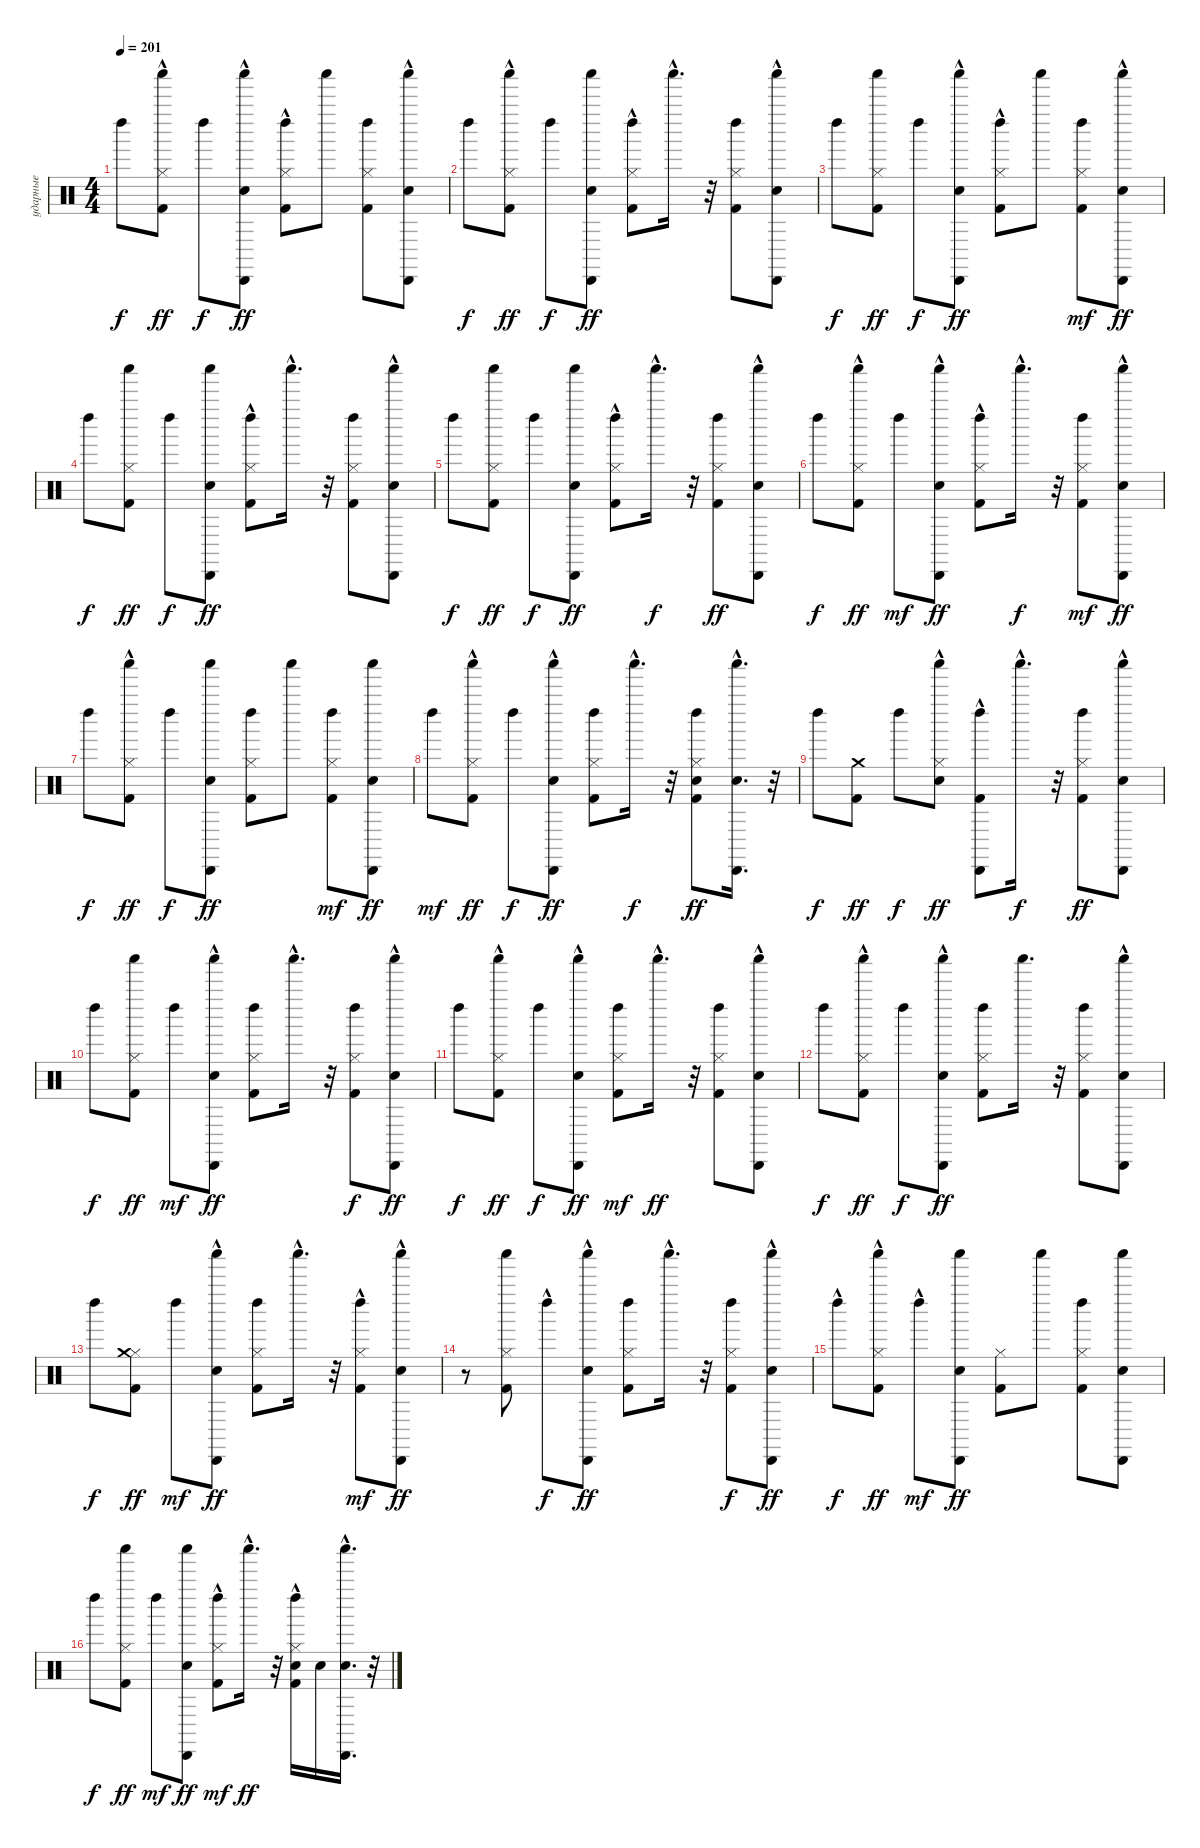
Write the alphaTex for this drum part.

\track ("ударные" "ударные") {instrument percussion}
\staff {score}
\articulation defaults
\ts (4 4)
\tempo 201
\clef neutral
\ks c "Left Maraca (hit)".8{dy f}
("Kick (hit) 2" "Hi-Hat (closed)" "Shaker (hit)"{hac}).8{dy ff} "Left Maraca (hit)".8{dy f} ("Electric Snare (hit)" "Cabasa (hit)" "Shaker (hit)"{hac}).8{dy ff} ("Kick (hit) 2" "Hi-Hat (closed)"{hac} "Left Maraca (hit)").8 "Shaker (hit)".8 ("Kick (hit) 2" "Hi-Hat (closed)" "Left Maraca (hit)").8 ("Electric Snare (hit)" "Cabasa (hit)" "Shaker (hit)"{hac}).8 |
"Left Maraca (hit)".8{dy f} ("Kick (hit) 2" "Hi-Hat (closed)" "Shaker (hit)"{hac}).8{dy ff} "Left Maraca (hit)".8{dy f} ("Electric Snare (hit)" "Cabasa (hit)" "Shaker (hit)").8{dy ff} ("Kick (hit) 2" "Hi-Hat (closed)"{hac} "Left Maraca (hit)").8 "Shaker (hit)"{hac}.16{d} r.32 ("Kick (hit) 2" "Hi-Hat (closed)" "Left Maraca (hit)").8 ("Electric Snare (hit)" "Cabasa (hit)" "Shaker (hit)"{hac}).8 |
"Left Maraca (hit)".8{dy f} ("Kick (hit) 2" "Hi-Hat (closed)" "Shaker (hit)").8{dy ff} "Left Maraca (hit)".8{dy f} ("Electric Snare (hit)" "Cabasa (hit)"{hac} "Shaker (hit)").8{dy ff} ("Kick (hit) 2" "Hi-Hat (closed)"{hac} "Left Maraca (hit)").8 "Shaker (hit)".8 ("Kick (hit) 2" "Hi-Hat (closed)" "Left Maraca (hit)").8{dy mf} ("Electric Snare (hit)" "Cabasa (hit)"{hac} "Shaker (hit)").8{dy ff} |
"Left Maraca (hit)".8{dy f} ("Kick (hit) 2" "Hi-Hat (closed)" "Shaker (hit)").8{dy ff} "Left Maraca (hit)".8{dy f} ("Electric Snare (hit)" "Cabasa (hit)" "Shaker (hit)").8{dy ff} ("Kick (hit) 2" "Hi-Hat (closed)"{hac} "Left Maraca (hit)").8 "Shaker (hit)"{hac}.16{d} r.32 ("Kick (hit) 2" "Hi-Hat (closed)" "Left Maraca (hit)").8 ("Electric Snare (hit)" "Cabasa (hit)" "Shaker (hit)"{hac}).8 |
"Left Maraca (hit)".8{dy f} ("Kick (hit) 2" "Hi-Hat (closed)" "Shaker (hit)").8{dy ff} "Left Maraca (hit)".8{dy f} ("Electric Snare (hit)" "Cabasa (hit)" "Shaker (hit)").8{dy ff} ("Kick (hit) 2" "Hi-Hat (closed)"{hac} "Left Maraca (hit)").8 "Shaker (hit)"{hac}.16{d dy f} r.32 ("Kick (hit) 2" "Hi-Hat (closed)" "Left Maraca (hit)").8{dy ff} ("Electric Snare (hit)" "Cabasa (hit)" "Shaker (hit)"{hac}).8 |
"Left Maraca (hit)".8{dy f} ("Kick (hit) 2" "Hi-Hat (closed)" "Shaker (hit)"{hac}).8{dy ff} "Left Maraca (hit)".8{dy mf} ("Electric Snare (hit)" "Cabasa (hit)" "Shaker (hit)"{hac}).8{dy ff} ("Kick (hit) 2" "Hi-Hat (closed)"{hac} "Left Maraca (hit)").8 "Shaker (hit)"{hac}.16{d dy f} r.32 ("Kick (hit) 2" "Hi-Hat (closed)" "Left Maraca (hit)").8{dy mf} ("Electric Snare (hit)" "Cabasa (hit)" "Shaker (hit)"{hac}).8{dy ff} |
"Left Maraca (hit)".8{dy f} ("Kick (hit) 2" "Hi-Hat (closed)" "Shaker (hit)"{hac}).8{dy ff} "Left Maraca (hit)".8{dy f} ("Electric Snare (hit)" "Cabasa (hit)" "Shaker (hit)").8{dy ff} ("Kick (hit) 2" "Hi-Hat (closed)" "Left Maraca (hit)").8 "Shaker (hit)".8 ("Kick (hit) 2" "Hi-Hat (closed)" "Left Maraca (hit)").8{dy mf} ("Electric Snare (hit)" "Cabasa (hit)" "Shaker (hit)").8{dy ff} |
"Left Maraca (hit)".8{dy mf} ("Kick (hit) 2" "Hi-Hat (closed)" "Shaker (hit)"{hac}).8{dy ff} "Left Maraca (hit)".8{dy f} ("Electric Snare (hit)" "Cabasa (hit)" "Shaker (hit)"{hac}).8{dy ff} ("Kick (hit) 2" "Hi-Hat (closed)" "Left Maraca (hit)").8 "Shaker (hit)"{hac}.16{d dy f} r.32 ("Kick (hit) 2" "Electric Snare (hit)" "Hi-Hat (closed)" "Left Maraca (hit)").8{dy ff} ("Electric Snare (hit)" "Cabasa (hit)"{hac} "Shaker (hit)"{hac}).16{d} r.32 |
"Left Maraca (hit)".8{dy f} ("Kick (hit) 2" "Crash medium (hit)").8{dy ff} "Left Maraca (hit)".8{dy f} ("Electric Snare (hit)" "Hi-Hat (closed)" "Shaker (hit)"{hac}).8{dy ff} ("Kick (hit) 2" "Cabasa (hit)"{hac} "Left Maraca (hit)").8 "Shaker (hit)"{hac}.16{d dy f} r.32 ("Kick (hit) 2" "Hi-Hat (closed)" "Left Maraca (hit)").8{dy ff} ("Electric Snare (hit)" "Cabasa (hit)"{hac} "Shaker (hit)"{hac}).8 |
"Left Maraca (hit)".8{dy f} ("Kick (hit) 2" "Hi-Hat (closed)" "Shaker (hit)").8{dy ff} "Left Maraca (hit)".8{dy mf} ("Electric Snare (hit)" "Cabasa (hit)"{hac} "Shaker (hit)"{hac}).8{dy ff} ("Kick (hit) 2" "Hi-Hat (closed)" "Left Maraca (hit)").8 "Shaker (hit)"{hac}.16{d} r.32 ("Kick (hit) 2" "Hi-Hat (closed)" "Left Maraca (hit)").8{dy f} ("Electric Snare (hit)" "Cabasa (hit)"{hac} "Shaker (hit)"{hac}).8{dy ff} |
"Left Maraca (hit)".8{dy f} ("Kick (hit) 2" "Hi-Hat (closed)" "Shaker (hit)"{hac}).8{dy ff} "Left Maraca (hit)".8{dy f} ("Electric Snare (hit)" "Cabasa (hit)"{hac} "Shaker (hit)"{hac}).8{dy ff} ("Kick (hit) 2" "Hi-Hat (closed)" "Left Maraca (hit)").8{dy mf} "Shaker (hit)"{hac}.16{d dy ff} r.32 ("Kick (hit) 2" "Hi-Hat (closed)" "Left Maraca (hit)").8 ("Electric Snare (hit)" "Cabasa (hit)" "Shaker (hit)"{hac}).8 |
"Left Maraca (hit)".8{dy f} ("Kick (hit) 2" "Hi-Hat (closed)" "Shaker (hit)"{hac}).8{dy ff} "Left Maraca (hit)".8{dy f} ("Electric Snare (hit)" "Cabasa (hit)" "Shaker (hit)"{hac}).8{dy ff} ("Kick (hit) 2" "Hi-Hat (closed)" "Left Maraca (hit)").8 "Shaker (hit)".16{d} r.32 ("Kick (hit) 2" "Hi-Hat (closed)" "Left Maraca (hit)").8 ("Electric Snare (hit)" "Cabasa (hit)" "Shaker (hit)"{hac}).8 |
"Left Maraca (hit)".8{dy f} ("Kick (hit) 2" "Hi-Hat (closed)" "Crash medium (hit)").8{dy ff} "Left Maraca (hit)".8{dy mf} ("Electric Snare (hit)" "Cabasa (hit)" "Shaker (hit)"{hac}).8{dy ff} ("Kick (hit) 2" "Hi-Hat (closed)" "Left Maraca (hit)").8 "Shaker (hit)"{hac}.16{d} r.32 ("Kick (hit) 2" "Hi-Hat (closed)" "Left Maraca (hit)"{hac}).8{dy mf} ("Electric Snare (hit)" "Cabasa (hit)"{hac} "Shaker (hit)").8{dy ff} |
r.8 ("Kick (hit) 2" "Hi-Hat (closed)" "Shaker (hit)").8 "Left Maraca (hit)"{hac}.8{dy f} ("Electric Snare (hit)" "Cabasa (hit)" "Shaker (hit)"{hac}).8{dy ff} ("Kick (hit) 2" "Hi-Hat (closed)" "Left Maraca (hit)").8 "Shaker (hit)"{hac}.16{d} r.32 ("Kick (hit) 2" "Hi-Hat (closed)" "Left Maraca (hit)").8{dy f} ("Electric Snare (hit)" "Cabasa (hit)" "Shaker (hit)"{hac}).8{dy ff} |
"Left Maraca (hit)"{hac}.8{dy f} ("Kick (hit) 2" "Hi-Hat (closed)"{hac} "Shaker (hit)"{hac}).8{dy ff} "Left Maraca (hit)"{hac}.8{dy mf} ("Electric Snare (hit)" "Cabasa (hit)" "Shaker (hit)").8{dy ff} ("Kick (hit) 2" "Hi-Hat (closed)").8 "Shaker (hit)".8 ("Kick (hit) 2" "Hi-Hat (closed)" "Left Maraca (hit)").8 ("Electric Snare (hit)" "Cabasa (hit)" "Shaker (hit)").8 |
"Left Maraca (hit)".8{dy f} ("Kick (hit) 2" "Hi-Hat (closed)" "Shaker (hit)").8{dy ff} "Left Maraca (hit)".8{dy mf} ("Electric Snare (hit)" "Cabasa (hit)" "Shaker (hit)").8{dy ff} ("Kick (hit) 2" "Hi-Hat (closed)"{hac} "Left Maraca (hit)").8{dy mf} "Shaker (hit)"{hac}.16{d dy ff} r.32 ("Kick (hit) 2" "Electric Snare (hit)" "Hi-Hat (closed)"{hac} "Left Maraca (hit)").16 "Electric Snare (hit)".16 ("Electric Snare (hit)" "Cabasa (hit)" "Shaker (hit)"{hac}).16{d} r.32
